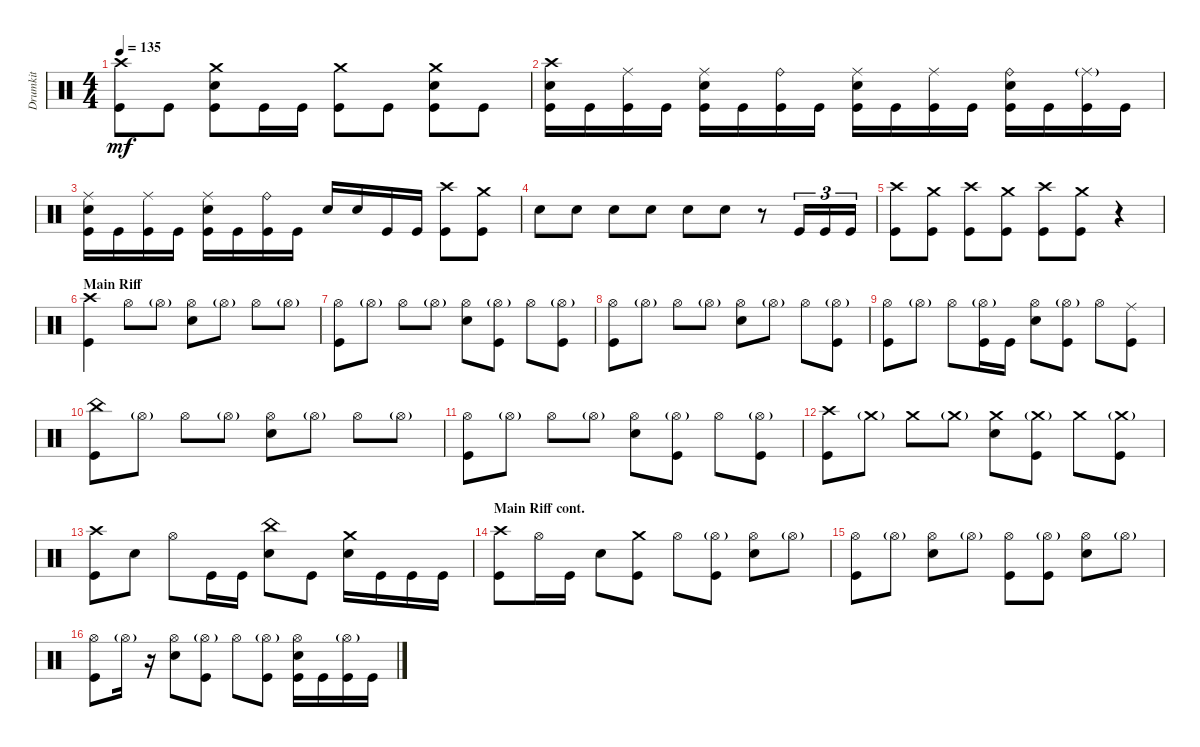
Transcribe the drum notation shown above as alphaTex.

\track ("Drumkit" "Drumkit") {instrument percussion}
\staff {score}
\articulation defaults
\ts (4 4)
\tempo 135
\clef neutral
\ks c
("Kick (hit)" "Crash high (hit)").8{dy mf} "Kick (hit)".8 ("Snare (hit) 2" "Kick (hit)" "Crash medium (hit)").8 "Kick (hit)".16 "Kick (hit)".16 ("Kick (hit)" "Crash medium (hit)").8 "Kick (hit)".8 ("Kick (hit)" "Snare (hit) 2" "Crash medium (hit)").8 "Kick (hit)".8 |
("Kick (hit)" "Crash high (hit)" "Snare (hit) 2").16 "Kick (hit)".16 ("Kick (hit)" "Ride (middle)").16 "Kick (hit)".16 ("Kick (hit)" "Snare (hit) 2" "Ride (middle)").16 "Kick (hit)".16 ("Kick (hit)" "Ride (bell)").16 "Kick (hit)".16 ("Kick (hit)" "Ride (middle)" "Snare (hit) 2").16 "Kick (hit)".16 ("Kick (hit)" "Ride (middle)").16 "Kick (hit)".16 ("Kick (hit)" "Snare (hit) 2" "Ride (bell)").16 "Kick (hit)".16 ("Kick (hit)" "Ride (middle)"{g}).16 "Kick (hit)".16 |
("Kick (hit)" "Ride (middle)" "Snare (hit) 2").16 "Kick (hit)".16 ("Kick (hit)" "Ride (middle)").16 "Kick (hit)".16 ("Kick (hit)" "Snare (hit) 2" "Ride (middle)").16 "Kick (hit)".16 ("Kick (hit)" "Ride (bell)").16 "Kick (hit)".16 "Snare (hit) 2".16 "Snare (hit) 2".16 "Kick (hit)".16 "Kick (hit)".16 ("Kick (hit)" "Crash high (hit)").8 ("Kick (hit)" "Crash medium (hit)").8 |
"Snare (hit) 2".8 "Snare (hit) 2".8 "Snare (hit) 2".8 "Snare (hit) 2".8 "Snare (hit) 2".8 "Snare (hit) 2".8 r.8 "Kick (hit)".16{tu (3 2)} "Kick (hit)".16{tu (3 2)} "Kick (hit)".16{tu (3 2)} |
("Kick (hit)" "Crash high (hit)").8 ("Kick (hit)" "Crash medium (hit)").8 ("Kick (hit)" "Crash high (hit)").8 ("Kick (hit)" "Crash medium (hit)").8 ("Kick (hit)" "Crash high (hit)").8 ("Kick (hit)" "Crash medium (hit)").8 r.4 |
\section ("" "Main Riff")
("Kick (hit)" "Crash high (hit)").4 "Hi-Hat (open)".8 "Hi-Hat (open)"{g}.8 ("Hi-Hat (open)" "Snare (hit) 2").8 "Hi-Hat (open)"{g}.8 "Hi-Hat (open)".8 "Hi-Hat (open)"{g}.8 |
("Hi-Hat (open)" "Kick (hit)").8 "Hi-Hat (open)"{g}.8 "Hi-Hat (open)".8 "Hi-Hat (open)"{g}.8 ("Hi-Hat (open)" "Snare (hit) 2").8 ("Kick (hit)" "Hi-Hat (open)"{g}).8 "Hi-Hat (open)".8 ("Kick (hit)" "Hi-Hat (open)"{g}).8 |
("Hi-Hat (open)" "Kick (hit)").8 "Hi-Hat (open)"{g}.8 "Hi-Hat (open)".8 "Hi-Hat (open)"{g}.8 ("Hi-Hat (open)" "Snare (hit) 2").8 "Hi-Hat (open)"{g}.8 "Hi-Hat (open)".8 ("Kick (hit)" "Hi-Hat (open)"{g}).8 |
("Hi-Hat (open)" "Kick (hit)").8 "Hi-Hat (open)"{g}.8 "Hi-Hat (open)".8 ("Kick (hit)" "Hi-Hat (open)"{g}).16 "Kick (hit)".16 ("Hi-Hat (open)" "Snare (hit) 2").8 ("Kick (hit)" "Hi-Hat (open)"{g}).8 "Hi-Hat (open)".8 ("Kick (hit)" "Ride (middle)").8 |
("Kick (hit)" "China (hit)").8 "Hi-Hat (open)"{g}.8 "Hi-Hat (open)".8 "Hi-Hat (open)"{g}.8 ("Hi-Hat (open)" "Snare (hit) 2").8 "Hi-Hat (open)"{g}.8 "Hi-Hat (open)".8 "Hi-Hat (open)"{g}.8 |
("Hi-Hat (open)" "Kick (hit)").8 "Hi-Hat (open)"{g}.8 "Hi-Hat (open)".8 "Hi-Hat (open)"{g}.8 ("Hi-Hat (open)" "Snare (hit) 2").8 ("Kick (hit)" "Hi-Hat (open)"{g}).8 "Hi-Hat (open)".8 ("Kick (hit)" "Hi-Hat (open)"{g}).8 |
("Kick (hit)" "Crash high (hit)").8 "Crash medium (hit)"{g}.8 "Crash medium (hit)".8 "Crash medium (hit)"{g}.8 ("Snare (hit) 2" "Crash medium (hit)").8 ("Kick (hit)" "Crash medium (hit)"{g}).8 "Crash medium (hit)".8 ("Kick (hit)" "Crash medium (hit)"{g}).8 |
("Kick (hit)" "Crash high (hit)").8 "Snare (hit) 2".8 "Hi-Hat (open)".8 "Kick (hit)".16 "Kick (hit)".16 ("Snare (hit) 2" "China (hit)").8 "Kick (hit)".8 ("Snare (hit) 2" "Crash medium (hit)").16 "Kick (hit)".16 "Kick (hit)".16 "Kick (hit)".16 |
\section ("" "Main Riff cont.")
("Kick (hit)" "Crash high (hit)").8 "Hi-Hat (open)".16 "Kick (hit)".16 "Snare (hit) 2".8 ("Kick (hit)" "Crash medium (hit)").8 "Hi-Hat (open)".8 ("Kick (hit)" "Hi-Hat (open)"{g}).8 ("Snare (hit) 2" "Hi-Hat (open)").8 "Hi-Hat (open)"{g}.8 |
("Kick (hit)" "Hi-Hat (open)").8 "Hi-Hat (open)"{g}.8 ("Snare (hit) 2" "Hi-Hat (open)").8 "Hi-Hat (open)"{g}.8 ("Hi-Hat (open)" "Kick (hit)").8 ("Kick (hit)" "Hi-Hat (open)"{g}).8 ("Snare (hit) 2" "Hi-Hat (open)").8 "Hi-Hat (open)"{g}.8 |
("Kick (hit)" "Hi-Hat (open)").8 "Hi-Hat (open)"{g}.16 r.16 ("Snare (hit) 2" "Hi-Hat (open)").8 ("Hi-Hat (open)"{g} "Kick (hit)").8 "Hi-Hat (open)".8 ("Kick (hit)" "Hi-Hat (open)"{g}).8 ("Snare (hit) 2" "Hi-Hat (open)" "Kick (hit)").16 "Kick (hit)".16 ("Kick (hit)" "Hi-Hat (open)"{g}).16 "Kick (hit)".16
